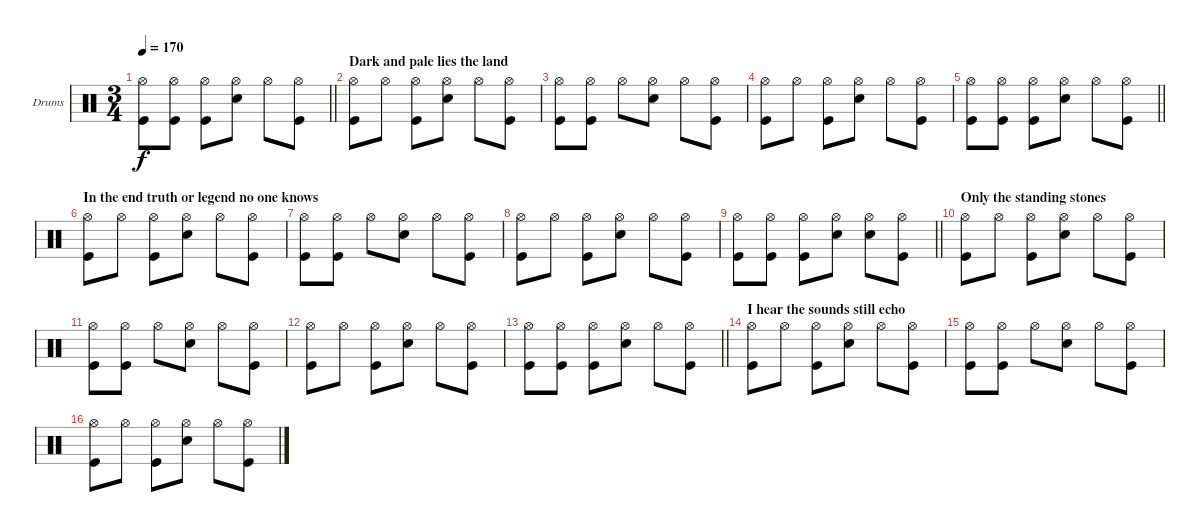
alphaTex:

\bracketExtendMode groupsimilarinstruments
\firstSystemTrackNameOrientation horizontal
\otherSystemsTrackNameOrientation horizontal
\track ("Drumkit" "Drums") {instrument percussion}
\staff {score}
\articulation defaults
\ts (3 4)
\tempo 170
\clef neutral
\barLineRight lightlight
\ks c
("Hi-Hat (open)" "Kick (hit)").8{dy f} ("Hi-Hat (open)" "Kick (hit)").8 ("Hi-Hat (open)" "Kick (hit)").8 ("Hi-Hat (open)" "Snare (hit) 2").8 "Hi-Hat (open)".8 ("Hi-Hat (open)" "Kick (hit)").8 |
\section ("" "Dark and pale lies the land")
("Hi-Hat (open)" "Kick (hit)").8 "Hi-Hat (open)".8 ("Hi-Hat (open)" "Kick (hit)").8 ("Hi-Hat (open)" "Snare (hit) 2").8 "Hi-Hat (open)".8 ("Hi-Hat (open)" "Kick (hit)").8 |
("Hi-Hat (open)" "Kick (hit)").8 ("Hi-Hat (open)" "Kick (hit)").8 "Hi-Hat (open)".8 ("Hi-Hat (open)" "Snare (hit) 2").8 "Hi-Hat (open)".8 ("Hi-Hat (open)" "Kick (hit)").8 |
("Hi-Hat (open)" "Kick (hit)").8 "Hi-Hat (open)".8 ("Hi-Hat (open)" "Kick (hit)").8 ("Hi-Hat (open)" "Snare (hit) 2").8 "Hi-Hat (open)".8 ("Hi-Hat (open)" "Kick (hit)").8 |
\barLineRight lightlight
("Hi-Hat (open)" "Kick (hit)").8 ("Hi-Hat (open)" "Kick (hit)").8 ("Hi-Hat (open)" "Kick (hit)").8 ("Hi-Hat (open)" "Snare (hit) 2").8 "Hi-Hat (open)".8 ("Hi-Hat (open)" "Kick (hit)").8 |
\section ("" "In the end truth or legend no one knows")
("Hi-Hat (open)" "Kick (hit)").8 "Hi-Hat (open)".8 ("Hi-Hat (open)" "Kick (hit)").8 ("Hi-Hat (open)" "Snare (hit) 2").8 "Hi-Hat (open)".8 ("Hi-Hat (open)" "Kick (hit)").8 |
("Hi-Hat (open)" "Kick (hit)").8 ("Hi-Hat (open)" "Kick (hit)").8 "Hi-Hat (open)".8 ("Hi-Hat (open)" "Snare (hit) 2").8 "Hi-Hat (open)".8 ("Hi-Hat (open)" "Kick (hit)").8 |
("Hi-Hat (open)" "Kick (hit)").8 "Hi-Hat (open)".8 ("Hi-Hat (open)" "Kick (hit)").8 ("Hi-Hat (open)" "Snare (hit) 2").8 "Hi-Hat (open)".8 ("Hi-Hat (open)" "Kick (hit)").8 |
\barLineRight lightlight
("Hi-Hat (open)" "Kick (hit)").8 ("Hi-Hat (open)" "Kick (hit)").8 ("Hi-Hat (open)" "Kick (hit)").8 ("Hi-Hat (open)" "Snare (hit) 2").8 ("Hi-Hat (open)" "Snare (hit) 2").8 ("Hi-Hat (open)" "Kick (hit)").8 |
\section ("" "Only the standing stones")
("Hi-Hat (open)" "Kick (hit)").8 "Hi-Hat (open)".8 ("Hi-Hat (open)" "Kick (hit)").8 ("Hi-Hat (open)" "Snare (hit) 2").8 "Hi-Hat (open)".8 ("Hi-Hat (open)" "Kick (hit)").8 |
("Hi-Hat (open)" "Kick (hit)").8 ("Hi-Hat (open)" "Kick (hit)").8 "Hi-Hat (open)".8 ("Hi-Hat (open)" "Snare (hit) 2").8 "Hi-Hat (open)".8 ("Hi-Hat (open)" "Kick (hit)").8 |
("Hi-Hat (open)" "Kick (hit)").8 "Hi-Hat (open)".8 ("Hi-Hat (open)" "Kick (hit)").8 ("Hi-Hat (open)" "Snare (hit) 2").8 "Hi-Hat (open)".8 ("Hi-Hat (open)" "Kick (hit)").8 |
\barLineRight lightlight
("Hi-Hat (open)" "Kick (hit)").8 ("Hi-Hat (open)" "Kick (hit)").8 ("Hi-Hat (open)" "Kick (hit)").8 ("Hi-Hat (open)" "Snare (hit) 2").8 "Hi-Hat (open)".8 ("Hi-Hat (open)" "Kick (hit)").8 |
\section ("" "I hear the sounds still echo")
("Hi-Hat (open)" "Kick (hit)").8 "Hi-Hat (open)".8 ("Hi-Hat (open)" "Kick (hit)").8 ("Hi-Hat (open)" "Snare (hit) 2").8 "Hi-Hat (open)".8 ("Hi-Hat (open)" "Kick (hit)").8 |
("Hi-Hat (open)" "Kick (hit)").8 ("Hi-Hat (open)" "Kick (hit)").8 "Hi-Hat (open)".8 ("Hi-Hat (open)" "Snare (hit) 2").8 "Hi-Hat (open)".8 ("Hi-Hat (open)" "Kick (hit)").8 |
("Hi-Hat (open)" "Kick (hit)").8 "Hi-Hat (open)".8 ("Hi-Hat (open)" "Kick (hit)").8 ("Hi-Hat (open)" "Snare (hit) 2").8 "Hi-Hat (open)".8 ("Hi-Hat (open)" "Kick (hit)").8
